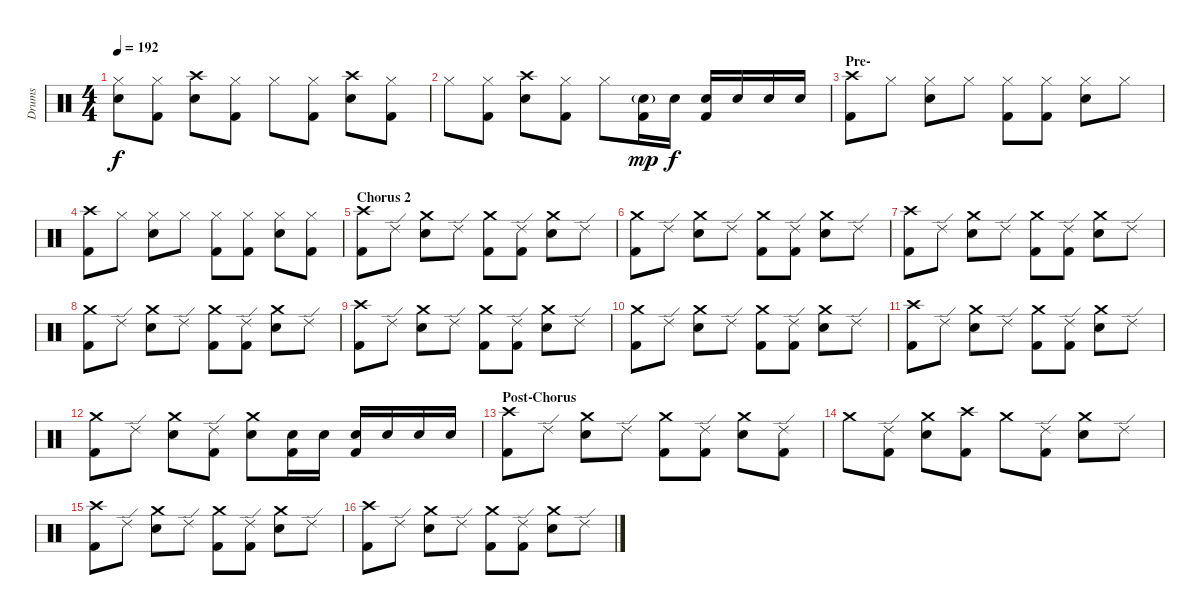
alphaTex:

\track ("Drums" "Drums") {instrument percussion}
\staff {score}
\articulation defaults
\ts (4 4)
\tempo 192
\clef neutral
\ks c
("Hi-Hat (closed)" "Electric Snare (hit)").8{dy f} ("Hi-Hat (closed)" "Kick (hit) 2").8 ("Crash high (hit)" "Electric Snare (hit)").8 ("Hi-Hat (closed)" "Kick (hit) 2").8 "Hi-Hat (closed)".8 ("Hi-Hat (closed)" "Kick (hit) 2").8 ("Crash high (hit)" "Electric Snare (hit)").8 ("Hi-Hat (closed)" "Kick (hit) 2").8 |
"Hi-Hat (closed)".8 ("Hi-Hat (closed)" "Kick (hit) 2").8 ("Crash high (hit)" "Electric Snare (hit)").8 ("Hi-Hat (closed)" "Kick (hit) 2").8 "Hi-Hat (closed)".8 ("Electric Snare (hit)"{g} "Kick (hit) 2").16{dy mp} "Electric Snare (hit)".16{dy f} ("Electric Snare (hit)" "Kick (hit) 2").16 "Electric Snare (hit)".16 "Electric Snare (hit)".16 "Electric Snare (hit)".16 |
\section ("" "Pre-")
("Crash high (hit)" "Kick (hit) 2").8 "Hi-Hat (closed)".8 ("Hi-Hat (closed)" "Electric Snare (hit)").8 "Hi-Hat (closed)".8 ("Hi-Hat (closed)" "Kick (hit) 2").8 ("Hi-Hat (closed)" "Kick (hit) 2").8 ("Hi-Hat (closed)" "Electric Snare (hit)").8 "Hi-Hat (closed)".8 |
("Crash high (hit)" "Kick (hit) 2").8 "Hi-Hat (closed)".8 ("Hi-Hat (closed)" "Electric Snare (hit)").8 "Hi-Hat (closed)".8 ("Hi-Hat (closed)" "Kick (hit) 2").8 ("Hi-Hat (closed)" "Kick (hit) 2").8 ("Hi-Hat (closed)" "Electric Snare (hit)").8 ("Hi-Hat (closed)" "Kick (hit) 2").8 |
\section ("" "Chorus 2")
("Crash high (hit)" "Kick (hit) 2").8 "Ride (edge) 2".8 ("Crash medium (hit)" "Electric Snare (hit)").8 "Ride (edge) 2".8 ("Crash medium (hit)" "Kick (hit) 2").8 ("Ride (edge) 2" "Kick (hit) 2").8 ("Crash medium (hit)" "Electric Snare (hit)").8 "Ride (edge) 2".8 |
("Crash medium (hit)" "Kick (hit) 2").8 "Ride (edge) 2".8 ("Crash medium (hit)" "Electric Snare (hit)").8 "Ride (edge) 2".8 ("Crash medium (hit)" "Kick (hit) 2").8 ("Ride (edge) 2" "Kick (hit) 2").8 ("Crash medium (hit)" "Electric Snare (hit)").8 "Ride (edge) 2".8 |
("Crash high (hit)" "Kick (hit) 2").8 "Ride (edge) 2".8 ("Crash medium (hit)" "Electric Snare (hit)").8 "Ride (edge) 2".8 ("Crash medium (hit)" "Kick (hit) 2").8 ("Ride (edge) 2" "Kick (hit) 2").8 ("Crash medium (hit)" "Electric Snare (hit)").8 "Ride (edge) 2".8 |
("Crash medium (hit)" "Kick (hit) 2").8 "Ride (edge) 2".8 ("Crash medium (hit)" "Electric Snare (hit)").8 "Ride (edge) 2".8 ("Crash medium (hit)" "Kick (hit) 2").8 ("Ride (edge) 2" "Kick (hit) 2").8 ("Crash medium (hit)" "Electric Snare (hit)").8 "Ride (edge) 2".8 |
("Crash high (hit)" "Kick (hit) 2").8 "Ride (edge) 2".8 ("Crash medium (hit)" "Electric Snare (hit)").8 "Ride (edge) 2".8 ("Crash medium (hit)" "Kick (hit) 2").8 ("Ride (edge) 2" "Kick (hit) 2").8 ("Crash medium (hit)" "Electric Snare (hit)").8 "Ride (edge) 2".8 |
("Crash medium (hit)" "Kick (hit) 2").8 "Ride (edge) 2".8 ("Crash medium (hit)" "Electric Snare (hit)").8 "Ride (edge) 2".8 ("Crash medium (hit)" "Kick (hit) 2").8 ("Ride (edge) 2" "Kick (hit) 2").8 ("Crash medium (hit)" "Electric Snare (hit)").8 "Ride (edge) 2".8 |
("Crash high (hit)" "Kick (hit) 2").8 "Ride (edge) 2".8 ("Crash medium (hit)" "Electric Snare (hit)").8 "Ride (edge) 2".8 ("Crash medium (hit)" "Kick (hit) 2").8 ("Ride (edge) 2" "Kick (hit) 2").8 ("Crash medium (hit)" "Electric Snare (hit)").8 "Ride (edge) 2".8 |
("Crash medium (hit)" "Kick (hit) 2").8 "Ride (edge) 2".8 ("Crash medium (hit)" "Electric Snare (hit)").8 ("Ride (edge) 2" "Kick (hit) 2").8 ("Crash medium (hit)" "Electric Snare (hit)").8 ("Electric Snare (hit)" "Kick (hit) 2").16 "Electric Snare (hit)".16 ("Electric Snare (hit)" "Kick (hit) 2").16 "Electric Snare (hit)".16 "Electric Snare (hit)".16 "Electric Snare (hit)".16 |
\section ("" "Post-Chorus")
("Crash high (hit)" "Kick (hit) 2").8 "Ride (edge) 2".8 ("Crash medium (hit)" "Electric Snare (hit)").8 "Ride (edge) 2".8 ("Crash medium (hit)" "Kick (hit) 2").8 ("Ride (edge) 2" "Kick (hit) 2").8 ("Crash medium (hit)" "Electric Snare (hit)").8 ("Ride (edge) 2" "Kick (hit) 2").8 |
"Crash medium (hit)".8 ("Ride (edge) 2" "Kick (hit) 2").8 ("Crash medium (hit)" "Electric Snare (hit)").8 ("Crash high (hit)" "Kick (hit) 2").8 "Crash medium (hit)".8 ("Ride (edge) 2" "Kick (hit) 2").8 ("Crash medium (hit)" "Electric Snare (hit)").8 "Ride (edge) 2".8 |
("Crash high (hit)" "Kick (hit) 2").8 "Ride (edge) 2".8 ("Crash medium (hit)" "Electric Snare (hit)").8 "Ride (edge) 2".8 ("Crash medium (hit)" "Kick (hit) 2").8 ("Ride (edge) 2" "Kick (hit) 2").8 ("Crash medium (hit)" "Electric Snare (hit)").8 "Ride (edge) 2".8 |
("Crash high (hit)" "Kick (hit) 2").8 "Ride (edge) 2".8 ("Crash medium (hit)" "Electric Snare (hit)").8 "Ride (edge) 2".8 ("Crash medium (hit)" "Kick (hit) 2").8 ("Ride (edge) 2" "Kick (hit) 2").8 ("Crash medium (hit)" "Electric Snare (hit)").8 "Ride (edge) 2".8
